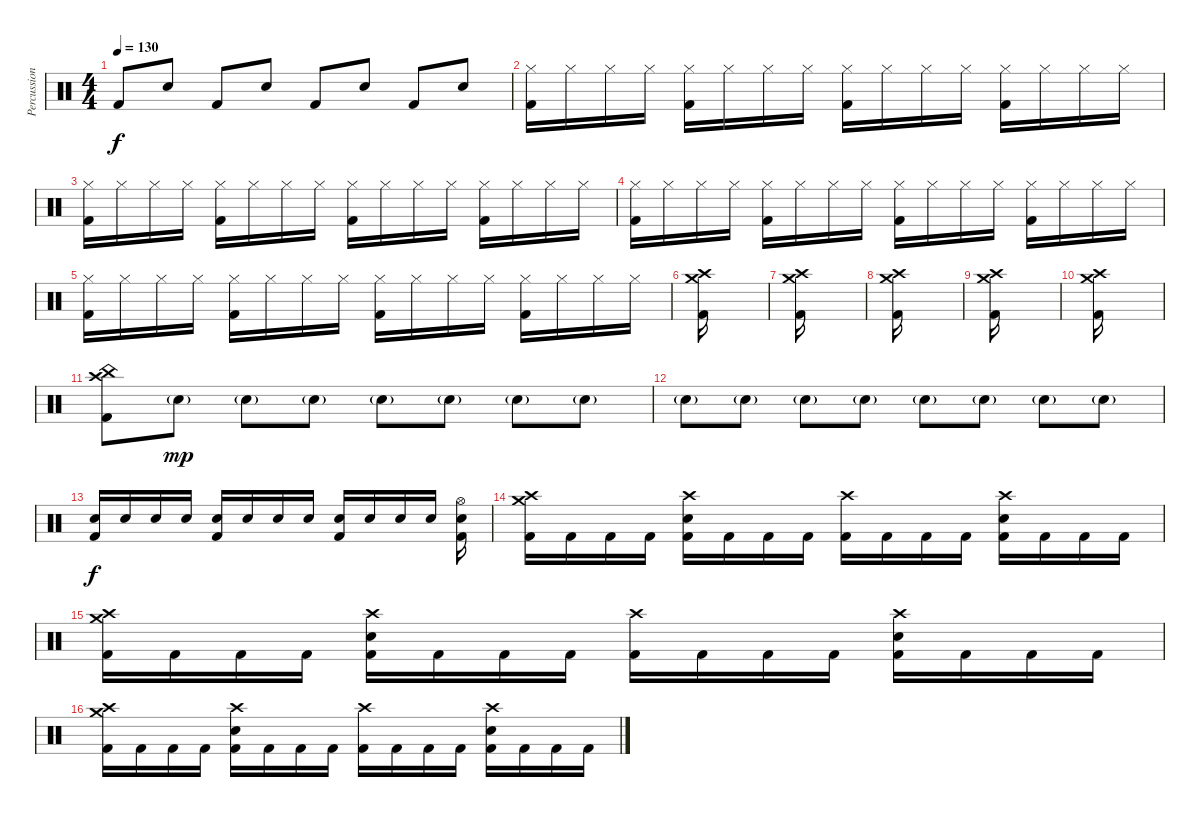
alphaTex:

\track ("Percussion" "Percussion") {instrument percussion}
\staff {score}
\articulation defaults
\ts (4 4)
\tempo 130
\clef neutral
\ks c "Kick (hit) 2".8{dy f} "Snare (hit)".8 "Kick (hit) 2".8 "Snare (hit)".8 "Kick (hit) 2".8 "Snare (hit)".8 "Kick (hit) 2".8 "Snare (hit)".8
|
("Hi-Hat (closed)" "Kick (hit) 2").16 "Hi-Hat (closed)".16 "Hi-Hat (closed)".16 "Hi-Hat (closed)".16 ("Hi-Hat (closed)" "Kick (hit) 2").16 "Hi-Hat (closed)".16 "Hi-Hat (closed)".16 "Hi-Hat (closed)".16 ("Hi-Hat (closed)" "Kick (hit) 2").16 "Hi-Hat (closed)".16 "Hi-Hat (closed)".16 "Hi-Hat (closed)".16 ("Hi-Hat (closed)" "Kick (hit) 2").16 "Hi-Hat (closed)".16 "Hi-Hat (closed)".16 "Hi-Hat (closed)".16 |
("Hi-Hat (closed)" "Kick (hit) 2").16 "Hi-Hat (closed)".16 "Hi-Hat (closed)".16 "Hi-Hat (closed)".16 ("Hi-Hat (closed)" "Kick (hit) 2").16 "Hi-Hat (closed)".16 "Hi-Hat (closed)".16 "Hi-Hat (closed)".16 ("Hi-Hat (closed)" "Kick (hit) 2").16 "Hi-Hat (closed)".16 "Hi-Hat (closed)".16 "Hi-Hat (closed)".16 ("Hi-Hat (closed)" "Kick (hit) 2").16 "Hi-Hat (closed)".16 "Hi-Hat (closed)".16 "Hi-Hat (closed)".16 |
("Hi-Hat (closed)" "Kick (hit) 2").16 "Hi-Hat (closed)".16 "Hi-Hat (closed)".16 "Hi-Hat (closed)".16 ("Hi-Hat (closed)" "Kick (hit) 2").16 "Hi-Hat (closed)".16 "Hi-Hat (closed)".16 "Hi-Hat (closed)".16 ("Hi-Hat (closed)" "Kick (hit) 2").16 "Hi-Hat (closed)".16 "Hi-Hat (closed)".16 "Hi-Hat (closed)".16 ("Hi-Hat (closed)" "Kick (hit) 2").16 "Hi-Hat (closed)".16 "Hi-Hat (closed)".16 "Hi-Hat (closed)".16 |
("Hi-Hat (closed)" "Kick (hit) 2").16 "Hi-Hat (closed)".16 "Hi-Hat (closed)".16 "Hi-Hat (closed)".16 ("Hi-Hat (closed)" "Kick (hit) 2").16 "Hi-Hat (closed)".16 "Hi-Hat (closed)".16 "Hi-Hat (closed)".16 ("Hi-Hat (closed)" "Kick (hit) 2").16 "Hi-Hat (closed)".16 "Hi-Hat (closed)".16 "Hi-Hat (closed)".16 ("Hi-Hat (closed)" "Kick (hit) 2").16 "Hi-Hat (closed)".16 "Hi-Hat (closed)".16 "Hi-Hat (closed)".16 |
("Crash medium (hit)" "Crash high (hit)" "Kick (hit) 2").16 |
("Crash medium (hit)" "Crash high (hit)" "Kick (hit) 2").16 |
("Crash medium (hit)" "Crash high (hit)" "Kick (hit) 2").16 |
("Crash medium (hit)" "Crash high (hit)" "Kick (hit) 2").16 |
("Crash medium (hit)" "Crash high (hit)" "Kick (hit) 2").16 |
("China (hit)" "Crash high (hit)" "Kick (hit) 2").8 "Snare (hit) 2"{g}.8{dy mp} "Snare (hit) 2"{g}.8 "Snare (hit) 2"{g}.8 "Snare (hit) 2"{g}.8 "Snare (hit) 2"{g}.8 "Snare (hit) 2"{g}.8 "Snare (hit) 2"{g}.8 |
"Snare (hit) 2"{g}.8 "Snare (hit) 2"{g}.8 "Snare (hit) 2"{g}.8 "Snare (hit) 2"{g}.8 "Snare (hit) 2"{g}.8 "Snare (hit) 2"{g}.8 "Snare (hit) 2"{g}.8 "Snare (hit) 2"{g}.8 |
("Snare (hit) 2" "Kick (hit) 2").16{dy f} "Snare (hit) 2".16 "Snare (hit) 2".16 "Snare (hit) 2".16 ("Snare (hit) 2" "Kick (hit) 2").16 "Snare (hit) 2".16 "Snare (hit) 2".16 "Snare (hit) 2".16 ("Snare (hit) 2" "Kick (hit) 2").16 "Snare (hit) 2".16 "Snare (hit) 2".16 "Snare (hit) 2".16 ("Hi-Hat (open)" "Snare (hit) 2" "Kick (hit) 2").16 |
("Crash medium (hit)" "Crash high (hit)" "Kick (hit) 2").16 "Kick (hit) 2".16 "Kick (hit) 2".16 "Kick (hit) 2".16 ("Crash high (hit)" "Snare (hit) 2" "Kick (hit) 2").16 "Kick (hit) 2".16 "Kick (hit) 2".16 "Kick (hit) 2".16 ("Crash high (hit)" "Kick (hit) 2").16 "Kick (hit) 2".16 "Kick (hit) 2".16 "Kick (hit) 2".16 ("Crash high (hit)" "Snare (hit) 2" "Kick (hit) 2").16 "Kick (hit) 2".16 "Kick (hit) 2".16 "Kick (hit) 2".16 |
("Crash high (hit)" "Crash medium (hit)" "Kick (hit) 2").16 "Kick (hit) 2".16 "Kick (hit) 2".16 "Kick (hit) 2".16 ("Crash high (hit)" "Snare (hit) 2" "Kick (hit) 2").16 "Kick (hit) 2".16 "Kick (hit) 2".16 "Kick (hit) 2".16 ("Crash high (hit)" "Kick (hit) 2").16 "Kick (hit) 2".16 "Kick (hit) 2".16 "Kick (hit) 2".16 ("Crash high (hit)" "Snare (hit) 2" "Kick (hit) 2").16 "Kick (hit) 2".16 "Kick (hit) 2".16 "Kick (hit) 2".16 |
("Crash medium (hit)" "Crash high (hit)" "Kick (hit) 2").16 "Kick (hit) 2".16 "Kick (hit) 2".16 "Kick (hit) 2".16 ("Crash high (hit)" "Snare (hit) 2" "Kick (hit) 2").16 "Kick (hit) 2".16 "Kick (hit) 2".16 "Kick (hit) 2".16 ("Crash high (hit)" "Kick (hit) 2").16 "Kick (hit) 2".16 "Kick (hit) 2".16 "Kick (hit) 2".16 ("Crash high (hit)" "Snare (hit) 2" "Kick (hit) 2").16 "Kick (hit) 2".16 "Kick (hit) 2".16 "Kick (hit) 2".16
